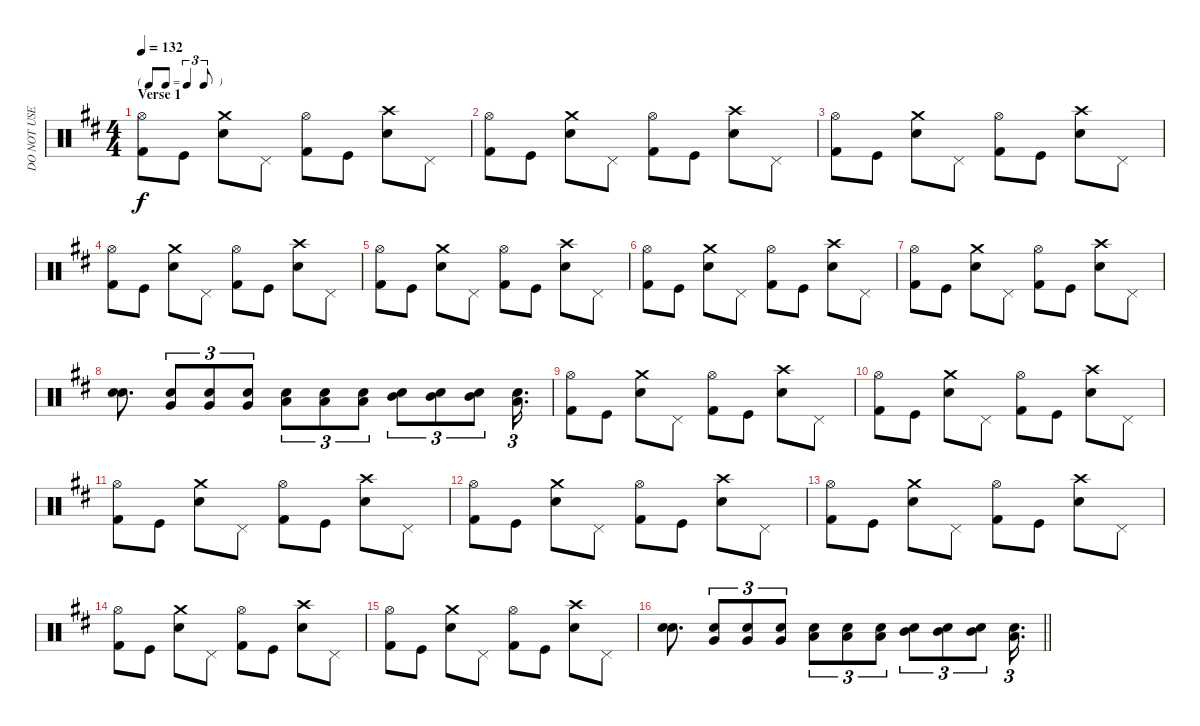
\track ("DO NOT USE" "DO NOT USE") {solo instrument percussion}
\staff {score}
\articulation defaults
\ts (4 4)
\tf triplet8th
\section ("" "Verse 1")
\tempo 132
\clef neutral
\ks d
("Hi-Hat (open)" "Kick (hit) 2").8{dy f} "Kick (hit)".8 ("Crash medium (hit)" "Electric Snare (hit)").8 "Pedal Hi-Hat (hit)".8 ("Hi-Hat (open)" "Kick (hit) 2").8 "Kick (hit)".8 ("Crash high (hit)" "Electric Snare (hit)").8 "Pedal Hi-Hat (hit)".8 |
("Hi-Hat (open)" "Kick (hit) 2").8 "Kick (hit)".8 ("Crash medium (hit)" "Electric Snare (hit)").8 "Pedal Hi-Hat (hit)".8 ("Hi-Hat (open)" "Kick (hit) 2").8 "Kick (hit)".8 ("Crash high (hit)" "Electric Snare (hit)").8 "Pedal Hi-Hat (hit)".8 |
("Hi-Hat (open)" "Kick (hit) 2").8 "Kick (hit)".8 ("Crash medium (hit)" "Electric Snare (hit)").8 "Pedal Hi-Hat (hit)".8 ("Hi-Hat (open)" "Kick (hit) 2").8 "Kick (hit)".8 ("Crash high (hit)" "Electric Snare (hit)").8 "Pedal Hi-Hat (hit)".8 |
("Hi-Hat (open)" "Kick (hit) 2").8 "Kick (hit)".8 ("Crash medium (hit)" "Electric Snare (hit)").8 "Pedal Hi-Hat (hit)".8 ("Hi-Hat (open)" "Kick (hit) 2").8 "Kick (hit)".8 ("Crash high (hit)" "Electric Snare (hit)").8 "Pedal Hi-Hat (hit)".8 |
("Hi-Hat (open)" "Kick (hit) 2").8 "Kick (hit)".8 ("Crash medium (hit)" "Electric Snare (hit)").8 "Pedal Hi-Hat (hit)".8 ("Hi-Hat (open)" "Kick (hit) 2").8 "Kick (hit)".8 ("Crash high (hit)" "Electric Snare (hit)").8 "Pedal Hi-Hat (hit)".8 |
("Hi-Hat (open)" "Kick (hit) 2").8 "Kick (hit)".8 ("Crash medium (hit)" "Electric Snare (hit)").8 "Pedal Hi-Hat (hit)".8 ("Hi-Hat (open)" "Kick (hit) 2").8 "Kick (hit)".8 ("Crash high (hit)" "Electric Snare (hit)").8 "Pedal Hi-Hat (hit)".8 |
("Hi-Hat (open)" "Kick (hit) 2").8 "Kick (hit)".8 ("Crash medium (hit)" "Electric Snare (hit)").8 "Pedal Hi-Hat (hit)".8 ("Hi-Hat (open)" "Kick (hit) 2").8 "Kick (hit)".8 ("Crash high (hit)" "Electric Snare (hit)").8 "Pedal Hi-Hat (hit)".8 |
("Snare (hit) 2" "Electric Snare (hit)").8{d} ("Electric Snare (hit)" "Very Low Tom (hit)").8{tu (3 2)} ("Electric Snare (hit)" "Very Low Tom (hit)").8{tu (3 2)} ("Electric Snare (hit)" "Very Low Tom (hit)").8{tu (3 2)} ("Snare (hit) 2" "Low Tom (hit)").8{tu (3 2)} ("Snare (hit) 2" "Low Tom (hit)").8{tu (3 2)} ("Snare (hit) 2" "Low Tom (hit)").8{tu (3 2)} ("Electric Snare (hit)" "Mid Tom (hit)").8{tu (3 2)} ("Electric Snare (hit)" "Mid Tom (hit)").8{tu (3 2)} ("Electric Snare (hit)" "Mid Tom (hit)").8{tu (3 2)} ("Electric Snare (hit)" "Low Floor Tom (hit)").16{d tu (3 2)} |
("Hi-Hat (open)" "Kick (hit) 2").8 "Kick (hit)".8 ("Crash medium (hit)" "Electric Snare (hit)").8 "Pedal Hi-Hat (hit)".8 ("Hi-Hat (open)" "Kick (hit) 2").8 "Kick (hit)".8 ("Crash high (hit)" "Electric Snare (hit)").8 "Pedal Hi-Hat (hit)".8 |
("Hi-Hat (open)" "Kick (hit) 2").8 "Kick (hit)".8 ("Crash medium (hit)" "Electric Snare (hit)").8 "Pedal Hi-Hat (hit)".8 ("Hi-Hat (open)" "Kick (hit) 2").8 "Kick (hit)".8 ("Crash high (hit)" "Electric Snare (hit)").8 "Pedal Hi-Hat (hit)".8 |
("Hi-Hat (open)" "Kick (hit) 2").8 "Kick (hit)".8 ("Crash medium (hit)" "Electric Snare (hit)").8 "Pedal Hi-Hat (hit)".8 ("Hi-Hat (open)" "Kick (hit) 2").8 "Kick (hit)".8 ("Crash high (hit)" "Electric Snare (hit)").8 "Pedal Hi-Hat (hit)".8 |
("Hi-Hat (open)" "Kick (hit) 2").8 "Kick (hit)".8 ("Crash medium (hit)" "Electric Snare (hit)").8 "Pedal Hi-Hat (hit)".8 ("Hi-Hat (open)" "Kick (hit) 2").8 "Kick (hit)".8 ("Crash high (hit)" "Electric Snare (hit)").8 "Pedal Hi-Hat (hit)".8 |
("Hi-Hat (open)" "Kick (hit) 2").8 "Kick (hit)".8 ("Crash medium (hit)" "Electric Snare (hit)").8 "Pedal Hi-Hat (hit)".8 ("Hi-Hat (open)" "Kick (hit) 2").8 "Kick (hit)".8 ("Crash high (hit)" "Electric Snare (hit)").8 "Pedal Hi-Hat (hit)".8 |
("Hi-Hat (open)" "Kick (hit) 2").8 "Kick (hit)".8 ("Crash medium (hit)" "Electric Snare (hit)").8 "Pedal Hi-Hat (hit)".8 ("Hi-Hat (open)" "Kick (hit) 2").8 "Kick (hit)".8 ("Crash high (hit)" "Electric Snare (hit)").8 "Pedal Hi-Hat (hit)".8 |
("Hi-Hat (open)" "Kick (hit) 2").8 "Kick (hit)".8 ("Crash medium (hit)" "Electric Snare (hit)").8 "Pedal Hi-Hat (hit)".8 ("Hi-Hat (open)" "Kick (hit) 2").8 "Kick (hit)".8 ("Crash high (hit)" "Electric Snare (hit)").8 "Pedal Hi-Hat (hit)".8 |
\barLineRight lightlight
("Snare (hit) 2" "Electric Snare (hit)").8{d} ("Electric Snare (hit)" "Very Low Tom (hit)").8{tu (3 2)} ("Electric Snare (hit)" "Very Low Tom (hit)").8{tu (3 2)} ("Electric Snare (hit)" "Very Low Tom (hit)").8{tu (3 2)} ("Snare (hit) 2" "Low Tom (hit)").8{tu (3 2)} ("Snare (hit) 2" "Low Tom (hit)").8{tu (3 2)} ("Snare (hit) 2" "Low Tom (hit)").8{tu (3 2)} ("Electric Snare (hit)" "Mid Tom (hit)").8{tu (3 2)} ("Electric Snare (hit)" "Mid Tom (hit)").8{tu (3 2)} ("Electric Snare (hit)" "Mid Tom (hit)").8{tu (3 2)} ("Electric Snare (hit)" "Low Floor Tom (hit)").16{d tu (3 2)}
